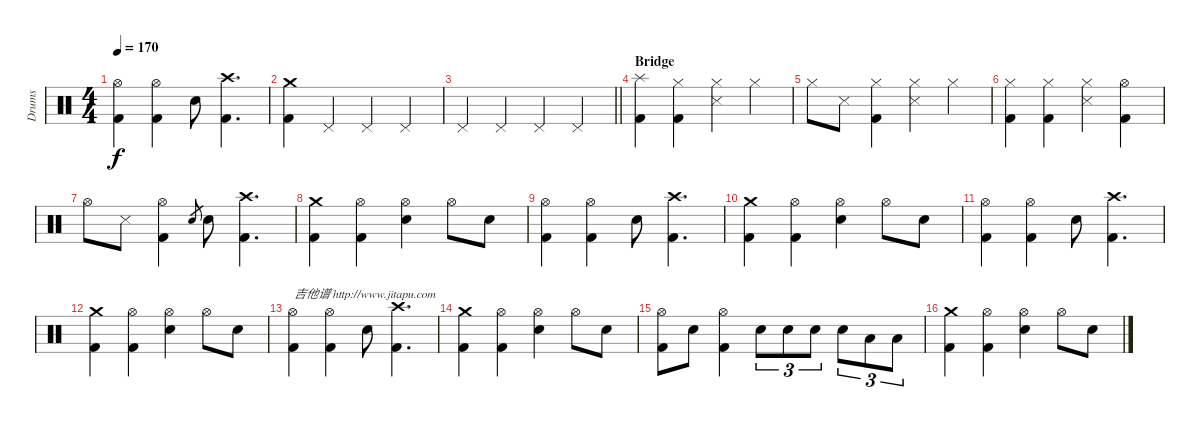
\track ("Drums" "Drums") {instrument percussion}
\staff {score}
\articulation defaults
\ts (4 4)
\tempo 170
\clef neutral
\ks c
("Hi-Hat (open)" "Kick (hit) 2").4{dy f} ("Hi-Hat (open)" "Kick (hit) 2").4 "Electric Snare (hit)".8 ("Crash high (hit)" "Kick (hit) 2").4{d} |
("Crash medium (hit)" "Kick (hit) 2").4 "Pedal Hi-Hat (hit)".4 "Pedal Hi-Hat (hit)".4 "Pedal Hi-Hat (hit)".4 |
\barLineRight lightlight "Pedal Hi-Hat (hit)".4 "Pedal Hi-Hat (hit)".4 "Pedal Hi-Hat (hit)".4 "Pedal Hi-Hat (hit)".4
|
\section ("" "Bridge")
("Splash (hit)" "Kick (hit) 2").4 ("Hi-Hat (closed)" "Kick (hit) 2").4 ("Hi-Hat (closed)" "Snare (side stick) 3").4 "Hi-Hat (closed)".4 |
"Hi-Hat (closed)".8 "Snare (side stick) 3".8 ("Hi-Hat (closed)" "Kick (hit) 2").4 ("Hi-Hat (closed)" "Snare (side stick) 3").4 "Hi-Hat (closed)".4 |
("Hi-Hat (closed)" "Kick (hit) 2").4 ("Hi-Hat (closed)" "Kick (hit) 2").4 ("Hi-Hat (closed)" "Snare (side stick) 3").4 ("Hi-Hat (open)" "Kick (hit) 2").4 |
"Hi-Hat (open)".8 "Snare (side stick) 3".8 ("Hi-Hat (open)" "Kick (hit) 2").4 "Electric Snare (hit)".8{gr} "Electric Snare (hit)".8 ("Crash high (hit)" "Kick (hit) 2").4{d} |
("Crash medium (hit)" "Kick (hit) 2").4 ("Hi-Hat (open)" "Kick (hit) 2").4 ("Hi-Hat (open)" "Electric Snare (hit)").4 "Hi-Hat (open)".8 "Electric Snare (hit)".8 |
("Hi-Hat (open)" "Kick (hit) 2").4 ("Hi-Hat (open)" "Kick (hit) 2").4 "Electric Snare (hit)".8 ("Crash high (hit)" "Kick (hit) 2").4{d} |
("Crash medium (hit)" "Kick (hit) 2").4 ("Hi-Hat (open)" "Kick (hit) 2").4 ("Hi-Hat (open)" "Electric Snare (hit)").4 "Hi-Hat (open)".8 "Electric Snare (hit)".8 |
("Hi-Hat (open)" "Kick (hit) 2").4 ("Hi-Hat (open)" "Kick (hit) 2").4 "Electric Snare (hit)".8 ("Crash high (hit)" "Kick (hit) 2").4{d} |
("Crash medium (hit)" "Kick (hit) 2").4 ("Hi-Hat (open)" "Kick (hit) 2").4 ("Hi-Hat (open)" "Electric Snare (hit)").4 "Hi-Hat (open)".8 "Electric Snare (hit)".8 |
("Hi-Hat (open)" "Kick (hit) 2").4{txt "吉他谱 http://www.jitapu.com"} ("Hi-Hat (open)" "Kick (hit) 2").4 "Electric Snare (hit)".8 ("Crash high (hit)" "Kick (hit) 2").4{d} |
("Crash medium (hit)" "Kick (hit) 2").4 ("Hi-Hat (open)" "Kick (hit) 2").4 ("Hi-Hat (open)" "Electric Snare (hit)").4 "Hi-Hat (open)".8 "Electric Snare (hit)".8 |
("Hi-Hat (open)" "Kick (hit) 2").8 "Electric Snare (hit)".8 ("Hi-Hat (open)" "Kick (hit) 2").4 "Electric Snare (hit)".8{tu (3 2)} "Electric Snare (hit)".8{tu (3 2)} "Electric Snare (hit)".8{tu (3 2)} "Electric Snare (hit)".8{tu (3 2)} "Low Tom (hit)".8{tu (3 2)} "Low Tom (hit)".8{tu (3 2)} |
("Crash medium (hit)" "Kick (hit) 2").4 ("Hi-Hat (open)" "Kick (hit) 2").4 ("Hi-Hat (open)" "Electric Snare (hit)").4 "Hi-Hat (open)".8 "Electric Snare (hit)".8
